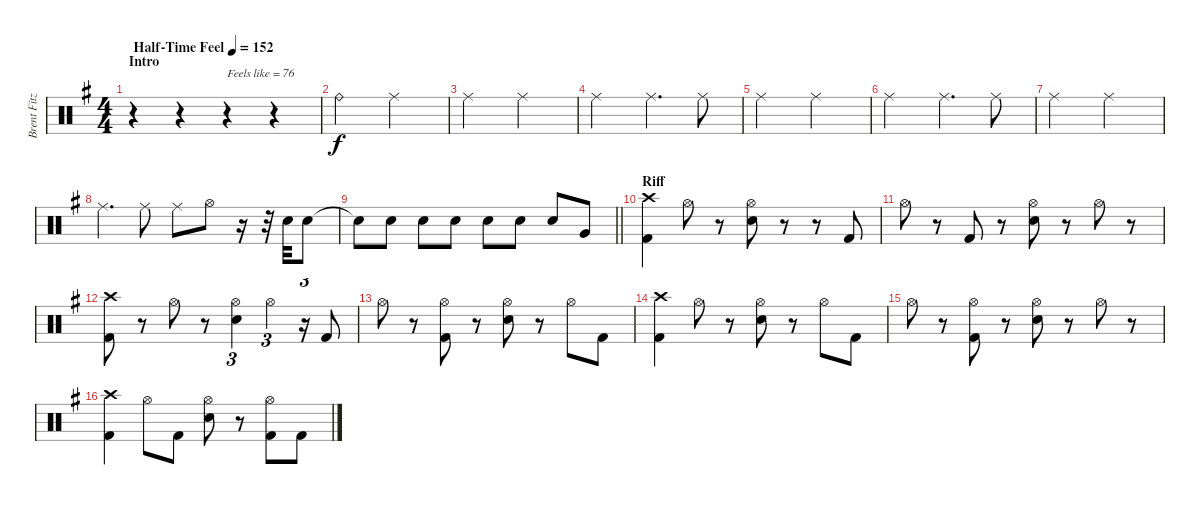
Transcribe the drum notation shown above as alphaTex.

\track ("Brent Fitz" "Brent Fitz") {instrument percussion}
\staff {score}
\articulation defaults
\ts (4 4)
\section ("" "Intro")
\tempo (152 "Half-Time Feel")
\clef neutral
\ks eminor
r.4{dy f} r.4 r.4{txt "Feels like = 76"} r.4 |
"Ride (bell)".2 "Ride (middle)".2 |
"Ride (middle)".2 "Ride (middle)".2 |
"Ride (middle)".2 "Ride (middle)".4{d} "Ride (middle)".8 |
"Ride (middle)".2 "Ride (middle)".2 |
"Ride (middle)".2 "Ride (middle)".4{d} "Ride (middle)".8 |
"Ride (middle)".2 "Ride (middle)".2 |
"Ride (middle)".4{d} "Ride (middle)".8 "Ride (middle)".8 "Hi-Hat (open)".8 r.16 r.32 "Snare (hit) 2".32 "Snare (hit) 2".8 |
\barLineRight lightlight "Snare (hit)"{t}.8 "Snare (hit) 2".8 "Snare (hit) 2".8 "Snare (hit) 2".8 "Snare (hit) 2".8 "Snare (hit) 2".8 "Snare (hit) 2".8 "Very Low Tom (hit)".8
|
\section ("" "Riff")
("Crash high (hit)" "Kick (hit) 2").4 "Hi-Hat (open)".8 r.8 ("Hi-Hat (open)" "Snare (hit) 2").8 r.8 r.8 "Kick (hit) 2".8 |
"Hi-Hat (open)".8 r.8 "Kick (hit) 2".8 r.8 ("Hi-Hat (open)" "Snare (hit) 2").8 r.8 "Hi-Hat (open)".8 r.8 |
("Crash high (hit)" "Kick (hit) 2").8 r.8 "Hi-Hat (open)".8 r.8 ("Hi-Hat (open)" "Snare (hit) 2").4{tu (3 2)} "Hi-Hat (open)".4{tu (3 2)} r.16{tu (3 2)} "Kick (hit) 2".8 |
"Hi-Hat (open)".8 r.8 ("Hi-Hat (open)" "Kick (hit) 2").8 r.8 ("Hi-Hat (open)" "Snare (hit) 2").8 r.8 "Hi-Hat (open)".8 "Kick (hit) 2".8 |
("Crash high (hit)" "Kick (hit) 2").4 "Hi-Hat (open)".8 r.8 ("Hi-Hat (open)" "Snare (hit) 2").8 r.8 "Hi-Hat (open)".8 "Kick (hit) 2".8 |
"Hi-Hat (open)".8 r.8 ("Hi-Hat (open)" "Kick (hit) 2").8 r.8 ("Hi-Hat (open)" "Snare (hit) 2").8 r.8 "Hi-Hat (open)".8 r.8 |
("Crash high (hit)" "Kick (hit) 2").4 "Hi-Hat (open)".8 "Kick (hit) 2".8 ("Hi-Hat (open)" "Snare (hit) 2").8 r.8 ("Hi-Hat (open)" "Kick (hit) 2").8 "Kick (hit) 2".8
